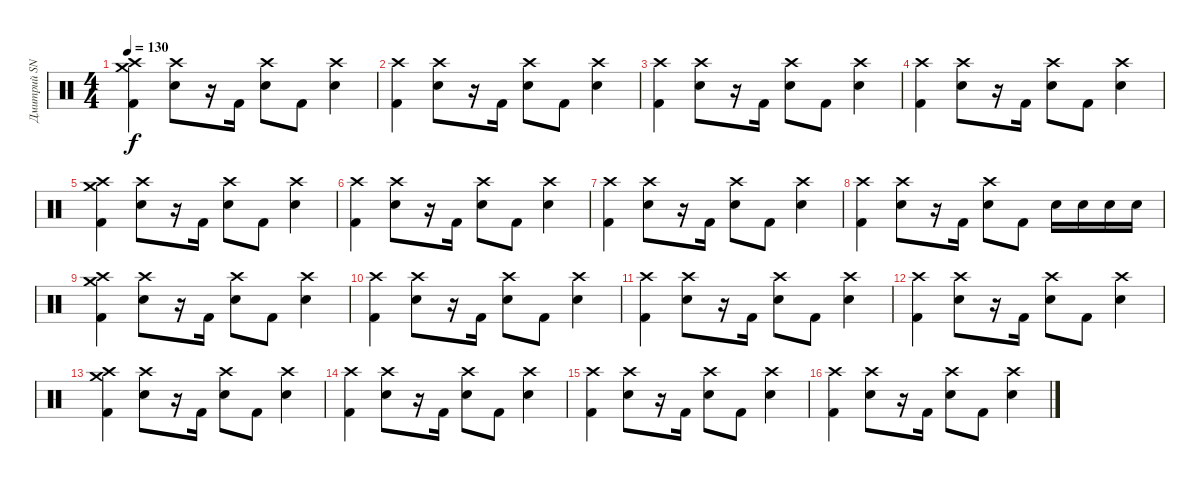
\track ("Дмитрий SNAKE Хакимов" "Дмитрий SN") {instrument percussion}
\staff {score}
\articulation defaults
\ts (4 4)
\tempo 130
\clef neutral
\ks c
("Crash high (hit)" "Crash medium (hit)" "Kick (hit) 2").4{dy f} ("Crash high (hit)" "Snare (hit) 2").8 r.16 "Kick (hit) 2".16 ("Crash high (hit)" "Snare (hit) 2").8 "Kick (hit) 2".8 ("Crash high (hit)" "Snare (hit) 2").4 |
("Crash high (hit)" "Kick (hit) 2").4 ("Crash high (hit)" "Snare (hit) 2").8 r.16 "Kick (hit) 2".16 ("Crash high (hit)" "Snare (hit) 2").8 "Kick (hit) 2".8 ("Crash high (hit)" "Snare (hit) 2").4 |
("Crash high (hit)" "Kick (hit) 2").4 ("Crash high (hit)" "Snare (hit) 2").8 r.16 "Kick (hit) 2".16 ("Crash high (hit)" "Snare (hit) 2").8 "Kick (hit) 2".8 ("Crash high (hit)" "Snare (hit) 2").4 |
("Crash high (hit)" "Kick (hit) 2").4 ("Crash high (hit)" "Snare (hit) 2").8 r.16 "Kick (hit) 2".16 ("Crash high (hit)" "Snare (hit) 2").8 "Kick (hit) 2".8 ("Crash high (hit)" "Snare (hit) 2").4 |
("Crash high (hit)" "Crash medium (hit)" "Kick (hit) 2").4 ("Crash high (hit)" "Snare (hit) 2").8 r.16 "Kick (hit) 2".16 ("Crash high (hit)" "Snare (hit) 2").8 "Kick (hit) 2".8 ("Crash high (hit)" "Snare (hit) 2").4 |
("Crash high (hit)" "Kick (hit) 2").4 ("Crash high (hit)" "Snare (hit) 2").8 r.16 "Kick (hit) 2".16 ("Crash high (hit)" "Snare (hit) 2").8 "Kick (hit) 2".8 ("Crash high (hit)" "Snare (hit) 2").4 |
("Crash high (hit)" "Kick (hit) 2").4 ("Crash high (hit)" "Snare (hit) 2").8 r.16 "Kick (hit) 2".16 ("Crash high (hit)" "Snare (hit) 2").8 "Kick (hit) 2".8 ("Crash high (hit)" "Snare (hit) 2").4 |
("Crash high (hit)" "Kick (hit) 2").4 ("Crash high (hit)" "Snare (hit) 2").8 r.16 "Kick (hit) 2".16 ("Crash high (hit)" "Snare (hit) 2").8 "Kick (hit) 2".8 "Snare (hit) 2".16 "Snare (hit) 2".16 "Snare (hit) 2".16 "Snare (hit) 2".16 |
("Crash high (hit)" "Crash medium (hit)" "Kick (hit) 2").4 ("Crash high (hit)" "Snare (hit) 2").8 r.16 "Kick (hit) 2".16 ("Crash high (hit)" "Snare (hit) 2").8 "Kick (hit) 2".8 ("Crash high (hit)" "Snare (hit) 2").4 |
("Crash high (hit)" "Kick (hit) 2").4 ("Crash high (hit)" "Snare (hit) 2").8 r.16 "Kick (hit) 2".16 ("Crash high (hit)" "Snare (hit) 2").8 "Kick (hit) 2".8 ("Crash high (hit)" "Snare (hit) 2").4 |
("Crash high (hit)" "Kick (hit) 2").4 ("Crash high (hit)" "Snare (hit) 2").8 r.16 "Kick (hit) 2".16 ("Crash high (hit)" "Snare (hit) 2").8 "Kick (hit) 2".8 ("Crash high (hit)" "Snare (hit) 2").4 |
("Crash high (hit)" "Kick (hit) 2").4 ("Crash high (hit)" "Snare (hit) 2").8 r.16 "Kick (hit) 2".16 ("Crash high (hit)" "Snare (hit) 2").8 "Kick (hit) 2".8 ("Crash high (hit)" "Snare (hit) 2").4 |
("Crash high (hit)" "Crash medium (hit)" "Kick (hit) 2").4 ("Crash high (hit)" "Snare (hit) 2").8 r.16 "Kick (hit) 2".16 ("Crash high (hit)" "Snare (hit) 2").8 "Kick (hit) 2".8 ("Crash high (hit)" "Snare (hit) 2").4 |
("Crash high (hit)" "Kick (hit) 2").4 ("Crash high (hit)" "Snare (hit) 2").8 r.16 "Kick (hit) 2".16 ("Crash high (hit)" "Snare (hit) 2").8 "Kick (hit) 2".8 ("Crash high (hit)" "Snare (hit) 2").4 |
("Crash high (hit)" "Kick (hit) 2").4 ("Crash high (hit)" "Snare (hit) 2").8 r.16 "Kick (hit) 2".16 ("Crash high (hit)" "Snare (hit) 2").8 "Kick (hit) 2".8 ("Crash high (hit)" "Snare (hit) 2").4 |
("Crash high (hit)" "Kick (hit) 2").4 ("Crash high (hit)" "Snare (hit) 2").8 r.16 "Kick (hit) 2".16 ("Crash high (hit)" "Snare (hit) 2").8 "Kick (hit) 2".8 ("Crash high (hit)" "Snare (hit) 2").4
